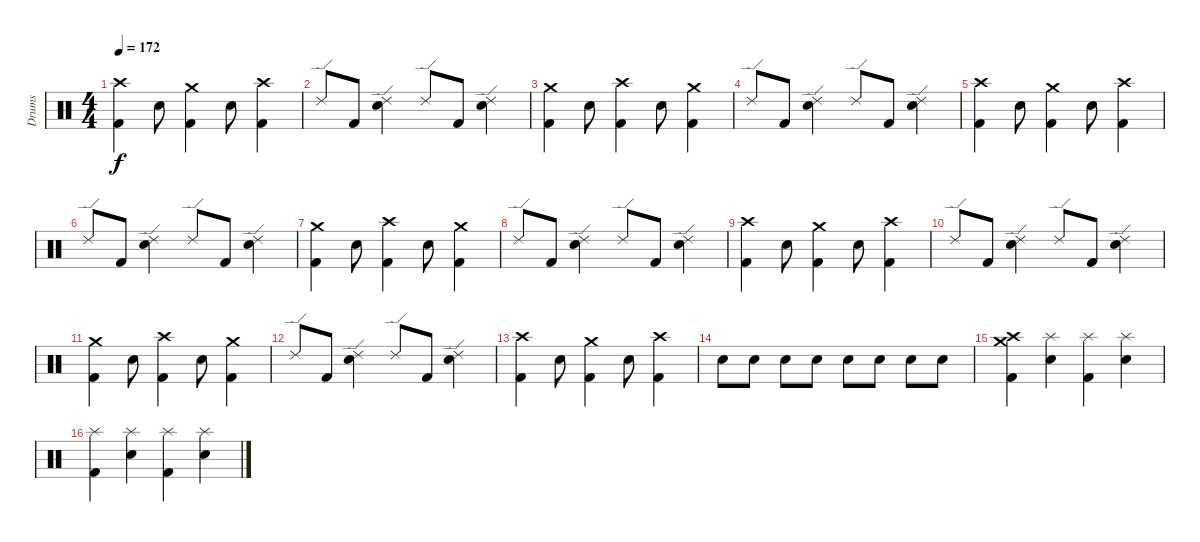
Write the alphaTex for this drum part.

\track ("Drums" "Drums") {instrument percussion}
\staff {score}
\articulation defaults
\ts (4 4)
\tempo 172
\clef neutral
\ks c
("Crash high (hit)" "Kick (hit) 2").4{dy f} "Snare (hit) 2".8 ("Crash medium (hit)" "Kick (hit) 2").4 "Snare (hit) 2".8 ("Crash high (hit)" "Kick (hit) 2").4 |
"Ride (edge) 2".8 "Kick (hit) 2".8 ("Ride (edge) 2" "Snare (hit) 2").4 "Ride (edge) 2".8 "Kick (hit) 2".8 ("Ride (edge) 2" "Snare (hit) 2").4 |
("Crash medium (hit)" "Kick (hit) 2").4 "Snare (hit) 2".8 ("Crash high (hit)" "Kick (hit) 2").4 "Snare (hit) 2".8 ("Crash medium (hit)" "Kick (hit) 2").4 |
"Ride (edge) 2".8 "Kick (hit) 2".8 ("Ride (edge) 2" "Snare (hit) 2").4 "Ride (edge) 2".8 "Kick (hit) 2".8 ("Ride (edge) 2" "Snare (hit) 2").4 |
("Crash high (hit)" "Kick (hit) 2").4 "Snare (hit) 2".8 ("Crash medium (hit)" "Kick (hit) 2").4 "Snare (hit) 2".8 ("Crash high (hit)" "Kick (hit) 2").4 |
"Ride (edge) 2".8 "Kick (hit) 2".8 ("Ride (edge) 2" "Snare (hit) 2").4 "Ride (edge) 2".8 "Kick (hit) 2".8 ("Ride (edge) 2" "Snare (hit) 2").4 |
("Crash medium (hit)" "Kick (hit) 2").4 "Snare (hit) 2".8 ("Kick (hit) 2" "Crash high (hit)").4 "Snare (hit) 2".8 ("Crash medium (hit)" "Kick (hit) 2").4 |
"Ride (edge) 2".8 "Kick (hit) 2".8 ("Ride (edge) 2" "Snare (hit) 2").4 "Ride (edge) 2".8 "Kick (hit) 2".8 ("Ride (edge) 2" "Snare (hit) 2").4 |
("Kick (hit) 2" "Crash high (hit)").4 "Snare (hit) 2".8 ("Kick (hit) 2" "Crash medium (hit)").4 "Snare (hit) 2".8 ("Kick (hit) 2" "Crash high (hit)").4 |
"Ride (edge) 2".8 "Kick (hit) 2".8 ("Ride (edge) 2" "Snare (hit) 2").4 "Ride (edge) 2".8 "Kick (hit) 2".8 ("Ride (edge) 2" "Snare (hit) 2").4 |
("Crash medium (hit)" "Kick (hit) 2").4 "Snare (hit) 2".8 ("Crash high (hit)" "Kick (hit) 2").4 "Snare (hit) 2".8 ("Crash medium (hit)" "Kick (hit) 2").4 |
"Ride (edge) 2".8 "Kick (hit) 2".8 ("Ride (edge) 2" "Snare (hit) 2").4 "Ride (edge) 2".8 "Kick (hit) 2".8 ("Ride (edge) 2" "Snare (hit) 2").4 |
("Crash high (hit)" "Kick (hit) 2").4 "Snare (hit) 2".8 ("Crash medium (hit)" "Kick (hit) 2").4 "Snare (hit) 2".8 ("Crash high (hit)" "Kick (hit) 2").4 |
"Snare (hit) 2".8 "Snare (hit) 2".8 "Snare (hit) 2".8 "Snare (hit) 2".8 "Snare (hit) 2".8 "Snare (hit) 2".8 "Snare (hit) 2".8 "Snare (hit) 2".8 |
("Crash high (hit)" "Crash medium (hit)" "Kick (hit) 2").4 ("Splash (hit)" "Snare (hit) 2").4 ("Splash (hit)" "Kick (hit) 2").4 ("Splash (hit)" "Snare (hit) 2").4 |
("Splash (hit)" "Kick (hit) 2").4 ("Splash (hit)" "Snare (hit) 2").4 ("Splash (hit)" "Kick (hit) 2").4 ("Splash (hit)" "Snare (hit) 2").4
